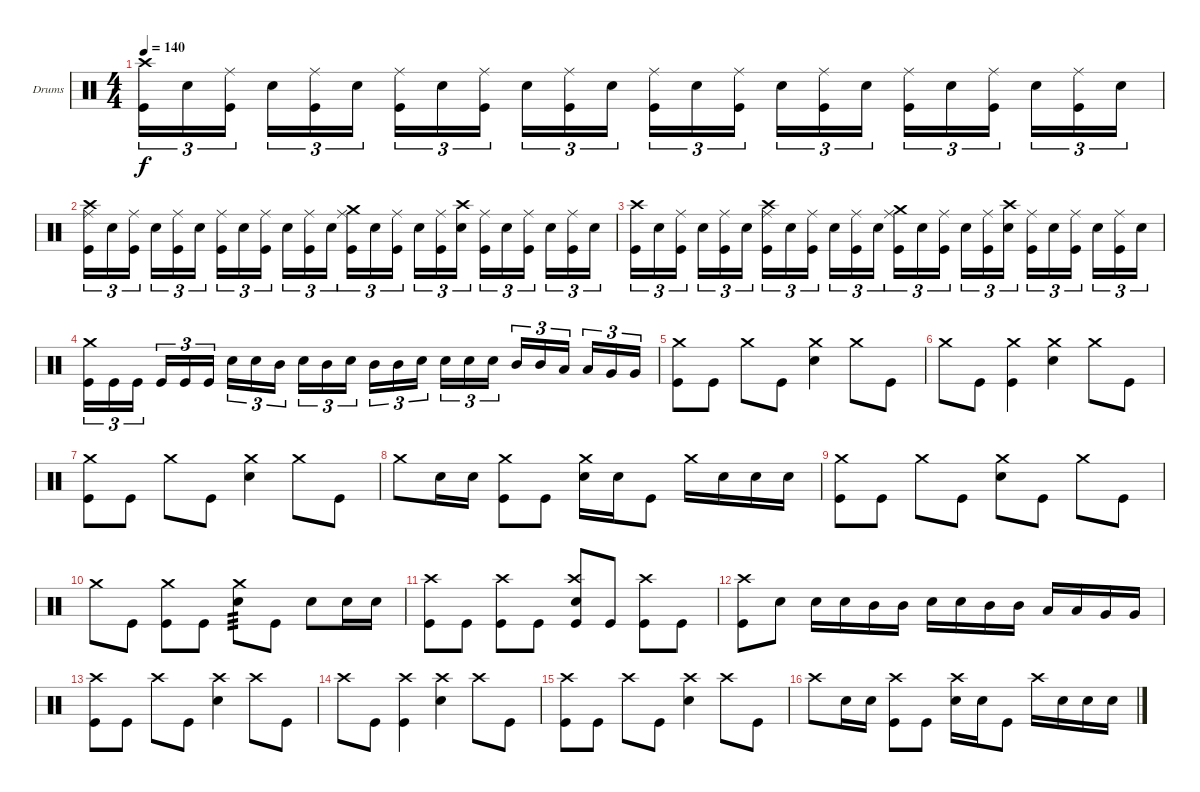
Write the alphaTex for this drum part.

\bracketExtendMode groupsimilarinstruments
\firstSystemTrackNameOrientation horizontal
\otherSystemsTrackNameOrientation horizontal
\track ("Drumkit" "Drums") {instrument percussion}
\staff {score}
\articulation defaults
\ts (4 4)
\tempo 140
\clef neutral
\ks c
("Kick (hit)" "Crash high (hit)").16{tu (3 2) dy f} "Snare (hit) 2".16{tu (3 2)} ("Kick (hit)" "Ride (middle)").16{tu (3 2)} "Snare (hit) 2".16{tu (3 2)} ("Kick (hit)" "Ride (middle)").16{tu (3 2)} "Snare (hit) 2".16{tu (3 2)} ("Kick (hit)" "Ride (middle)").16{tu (3 2)} "Snare (hit) 2".16{tu (3 2)} ("Kick (hit)" "Ride (middle)").16{tu (3 2)} "Snare (hit) 2".16{tu (3 2)} ("Kick (hit)" "Ride (middle)").16{tu (3 2)} "Snare (hit) 2".16{tu (3 2)} ("Kick (hit)" "Ride (middle)").16{tu (3 2)} "Snare (hit) 2".16{tu (3 2)} ("Kick (hit)" "Ride (middle)").16{tu (3 2)} "Snare (hit) 2".16{tu (3 2)} ("Kick (hit)" "Ride (middle)").16{tu (3 2)} "Snare (hit) 2".16{tu (3 2)} ("Kick (hit)" "Ride (middle)").16{tu (3 2)} "Snare (hit) 2".16{tu (3 2)} ("Kick (hit)" "Ride (middle)").16{tu (3 2)} "Snare (hit) 2".16{tu (3 2)} ("Kick (hit)" "Ride (middle)").16{tu (3 2)} "Snare (hit) 2".16{tu (3 2)} |
("Kick (hit)" "Ride (middle)" "Crash high (hit)").16{tu (3 2)} "Snare (hit) 2".16{tu (3 2)} ("Kick (hit)" "Ride (middle)").16{tu (3 2)} "Snare (hit) 2".16{tu (3 2)} ("Kick (hit)" "Ride (middle)").16{tu (3 2)} "Snare (hit) 2".16{tu (3 2)} ("Kick (hit)" "Ride (middle)").16{tu (3 2)} "Snare (hit) 2".16{tu (3 2)} ("Kick (hit)" "Ride (middle)").16{tu (3 2)} "Snare (hit) 2".16{tu (3 2)} ("Kick (hit)" "Ride (middle)").16{tu (3 2)} "Snare (hit) 2".16{tu (3 2)} ("Kick (hit)" "Ride (middle)" "Crash medium (hit)").16{tu (3 2)} "Snare (hit) 2".16{tu (3 2)} ("Kick (hit)" "Ride (middle)").16{tu (3 2)} "Snare (hit) 2".16{tu (3 2)} ("Kick (hit)" "Ride (middle)").16{tu (3 2)} ("Snare (hit) 2" "Crash high (hit)").16{tu (3 2)} ("Kick (hit)" "Ride (middle)").16{tu (3 2)} "Snare (hit) 2".16{tu (3 2)} ("Kick (hit)" "Ride (middle)").16{tu (3 2)} "Snare (hit) 2".16{tu (3 2)} ("Kick (hit)" "Ride (middle)").16{tu (3 2)} "Snare (hit) 2".16{tu (3 2)} |
("Kick (hit)" "Crash high (hit)").16{tu (3 2)} "Snare (hit) 2".16{tu (3 2)} ("Kick (hit)" "Ride (middle)").16{tu (3 2)} "Snare (hit) 2".16{tu (3 2)} ("Kick (hit)" "Ride (middle)").16{tu (3 2)} "Snare (hit) 2".16{tu (3 2)} ("Kick (hit)" "Ride (middle)" "Crash high (hit)").16{tu (3 2)} "Snare (hit) 2".16{tu (3 2)} ("Kick (hit)" "Ride (middle)").16{tu (3 2)} "Snare (hit) 2".16{tu (3 2)} ("Kick (hit)" "Ride (middle)").16{tu (3 2)} "Snare (hit) 2".16{tu (3 2)} ("Kick (hit)" "Ride (middle)" "Crash medium (hit)").16{tu (3 2)} "Snare (hit) 2".16{tu (3 2)} ("Kick (hit)" "Ride (middle)").16{tu (3 2)} "Snare (hit) 2".16{tu (3 2)} ("Kick (hit)" "Ride (middle)").16{tu (3 2)} ("Snare (hit) 2" "Crash high (hit)").16{tu (3 2)} ("Kick (hit)" "Ride (middle)").16{tu (3 2)} "Snare (hit) 2".16{tu (3 2)} ("Kick (hit)" "Ride (middle)").16{tu (3 2)} "Snare (hit) 2".16{tu (3 2)} ("Kick (hit)" "Ride (middle)").16{tu (3 2)} "Snare (hit) 2".16{tu (3 2)} |
("Kick (hit)" "Crash medium (hit)").16{tu (3 2)} "Kick (hit)".16{tu (3 2)} "Kick (hit)".16{tu (3 2)} "Kick (hit)".16{tu (3 2)} "Kick (hit)".16{tu (3 2)} "Kick (hit)".16{tu (3 2)} "Snare (hit) 2".16{tu (3 2)} "Snare (hit) 2".16{tu (3 2)} "Mid Tom (hit)".16{tu (3 2)} "Snare (hit) 2".16{tu (3 2)} "Mid Tom (hit)".16{tu (3 2)} "Snare (hit) 2".16{tu (3 2)} "Mid Tom (hit)".16{tu (3 2)} "Mid Tom (hit)".16{tu (3 2)} "Snare (hit) 2".16{tu (3 2)} "Snare (hit) 2".16{tu (3 2)} "Snare (hit) 2".16{tu (3 2)} "Snare (hit) 2".16{tu (3 2)} "Mid Tom (hit)".16{tu (3 2)} "Mid Tom (hit)".16{tu (3 2)} "Low Tom (hit)".16{tu (3 2)} "Low Tom (hit)".16{tu (3 2)} "Very Low Tom (hit)".16{tu (3 2)} "Very Low Tom (hit)".16{tu (3 2)} |
("Crash medium (hit)" "Kick (hit)").8 "Kick (hit)".8 "Crash medium (hit)".8 "Kick (hit)".8 ("Snare (hit) 2" "Crash medium (hit)").4 "Crash medium (hit)".8 "Kick (hit)".8 |
"Crash medium (hit)".8 "Kick (hit)".8 ("Kick (hit)" "Crash medium (hit)").4 ("Snare (hit) 2" "Crash medium (hit)").4 "Crash medium (hit)".8 "Kick (hit)".8 |
("Crash medium (hit)" "Kick (hit)").8 "Kick (hit)".8 "Crash medium (hit)".8 "Kick (hit)".8 ("Snare (hit) 2" "Crash medium (hit)").4 "Crash medium (hit)".8 "Kick (hit)".8 |
"Crash medium (hit)".8 "Snare (hit) 2".16 "Snare (hit) 2".16 ("Kick (hit)" "Crash medium (hit)").8 "Kick (hit)".8 ("Snare (hit) 2" "Crash medium (hit)").16 "Snare (hit) 2".16 "Kick (hit)".8 "Crash medium (hit)".16 "Snare (hit) 2".16 "Snare (hit) 2".16 "Snare (hit) 2".16 |
("Crash medium (hit)" "Kick (hit)").8 "Kick (hit)".8 "Crash medium (hit)".8 "Kick (hit)".8 ("Snare (hit) 2" "Crash medium (hit)").8 "Kick (hit)".8 "Crash medium (hit)".8 "Kick (hit)".8 |
"Crash medium (hit)".8 "Kick (hit)".8 ("Crash medium (hit)" "Kick (hit)").8 "Kick (hit)".8 ("Snare (hit) 2" "Crash medium (hit)").8{tp 3} "Kick (hit)".8 "Snare (hit) 2".8 "Snare (hit) 2".16 "Snare (hit) 2".16 |
("Kick (hit)" "Crash high (hit)").8 "Kick (hit)".8 ("Kick (hit)" "Crash high (hit)").8 "Kick (hit)".8 ("Kick (hit)" "Crash high (hit)" "Snare (hit) 2").8 "Kick (hit)".8 ("Kick (hit)" "Crash high (hit)").8 "Kick (hit)".8 |
("Kick (hit)" "Crash high (hit)").8 "Snare (hit) 2".8 "Snare (hit) 2".16 "Snare (hit) 2".16 "Mid Tom (hit)".16 "Mid Tom (hit)".16 "Snare (hit) 2".16 "Snare (hit) 2".16 "Mid Tom (hit)".16 "Mid Tom (hit)".16 "Low Tom (hit)".16 "Low Tom (hit)".16 "Very Low Tom (hit)".16 "Very Low Tom (hit)".16 |
("Kick (hit)" "Crash high (hit)").8 "Kick (hit)".8 "Crash high (hit)".8 "Kick (hit)".8 ("Snare (hit) 2" "Crash high (hit)").4 "Crash high (hit)".8 "Kick (hit)".8 |
"Crash high (hit)".8 "Kick (hit)".8 ("Kick (hit)" "Crash high (hit)").4 ("Snare (hit) 2" "Crash high (hit)").4 "Crash high (hit)".8 "Kick (hit)".8 |
("Kick (hit)" "Crash high (hit)").8 "Kick (hit)".8 "Crash high (hit)".8 "Kick (hit)".8 ("Snare (hit) 2" "Crash high (hit)").4 "Crash high (hit)".8 "Kick (hit)".8 |
"Crash high (hit)".8 "Snare (hit) 2".16 "Snare (hit) 2".16 ("Kick (hit)" "Crash high (hit)").8 "Kick (hit)".8 ("Snare (hit) 2" "Crash high (hit)").16 "Snare (hit) 2".16 "Kick (hit)".8 "Crash high (hit)".16 "Snare (hit) 2".16 "Snare (hit) 2".16 "Snare (hit) 2".16
